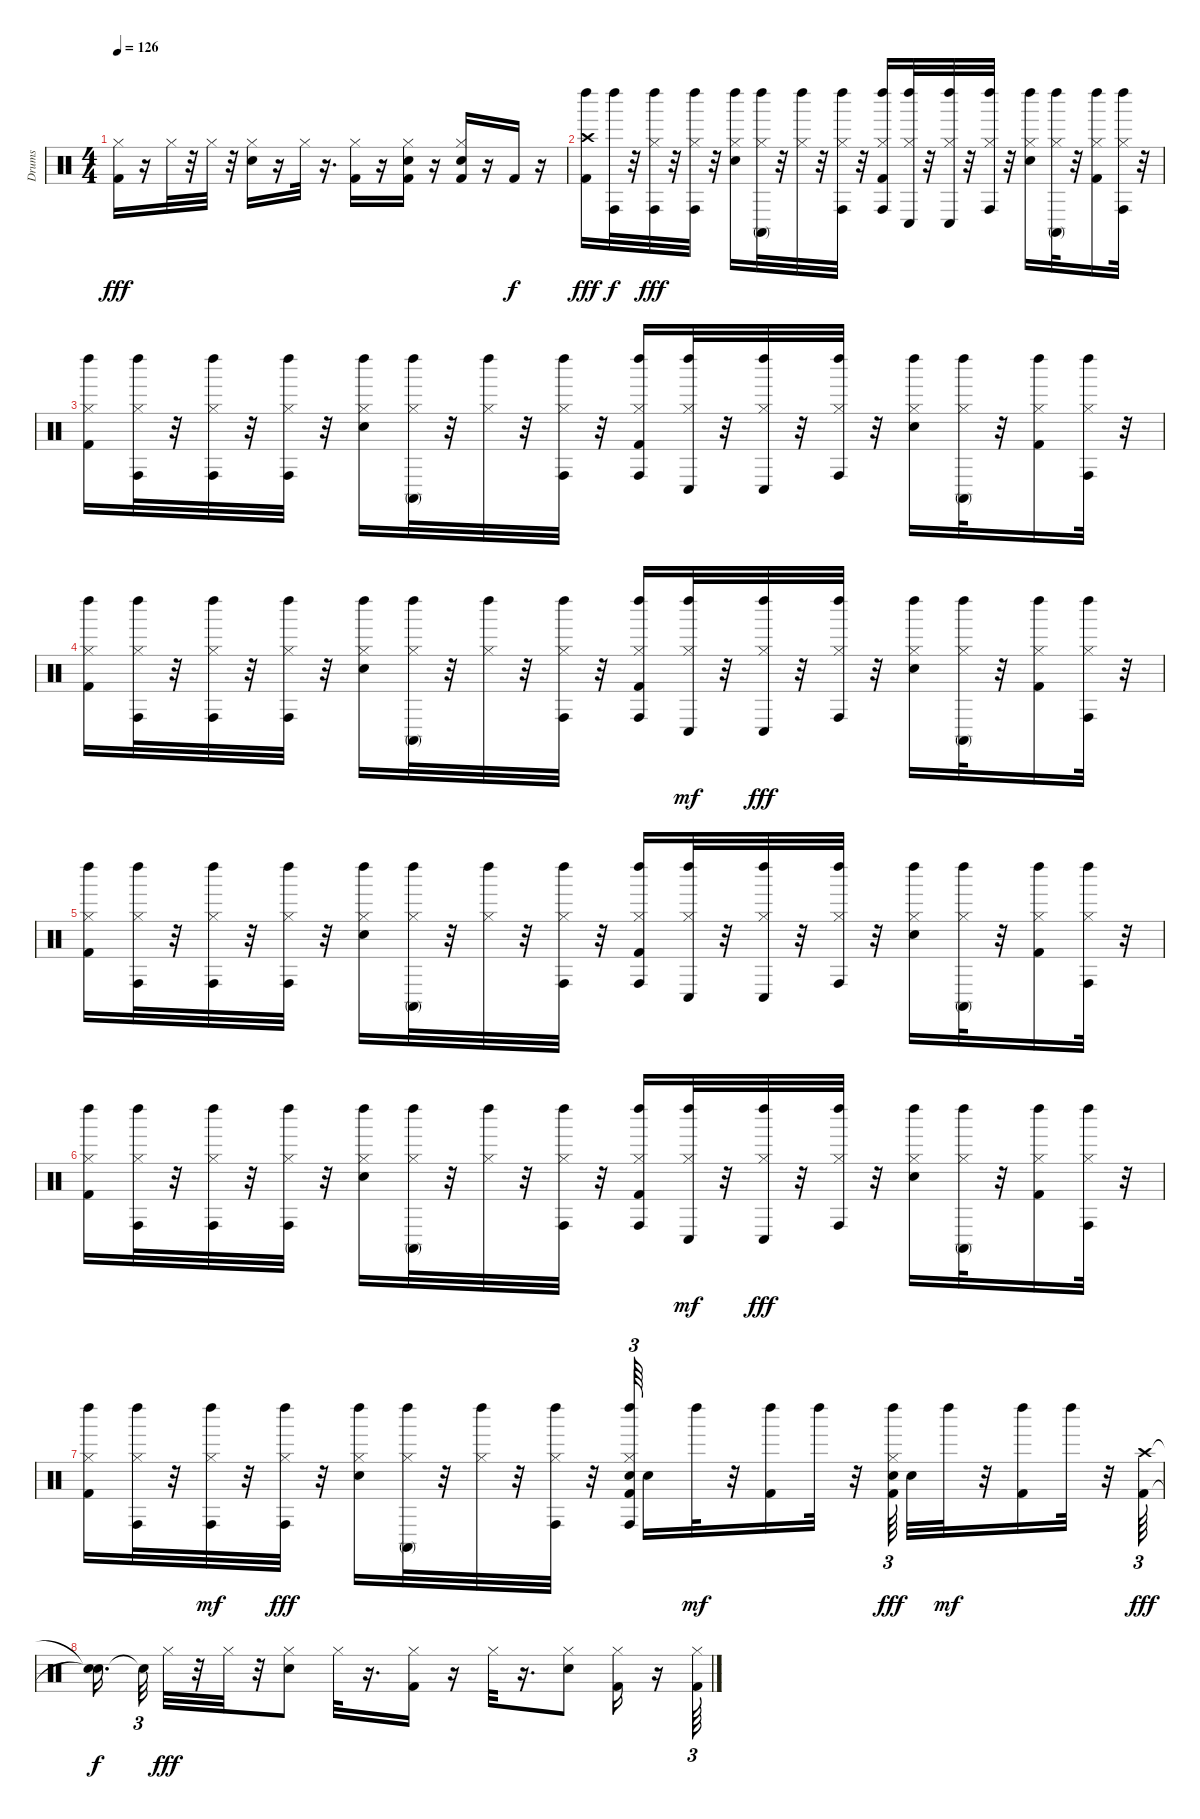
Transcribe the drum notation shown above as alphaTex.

\track ("Drums" "Drums") {instrument percussion}
\staff {score}
\articulation defaults
\ts (4 4)
\tempo 126
\clef neutral
\ks c
("Kick (hit) 2" "Hi-Hat (closed)").16{dy fff} r.16 "Hi-Hat (closed)".32 r.32 "Hi-Hat (closed)".32 r.32 ("Snare (hit) 2" "Hi-Hat (closed)").16 r.16 "Hi-Hat (closed)".32 r.16{d} ("Hi-Hat (closed)" "Kick (hit) 2").16 r.16 ("Hi-Hat (closed)" "Kick (hit) 2" "Snare (hit) 2").16 r.16 ("Hi-Hat (closed)" "Snare (hit) 2" "Kick (hit) 2").16 r.16 "Kick (hit) 2".16{dy f} r.16 |
("Crash high (hit)" "Kick (hit) 2" "Left Maraca (hit)").16{dy fff} ("Conga high (hit)" "Left Maraca (hit)").32{dy f} r.32 ("Conga high (hit)" "Left Maraca (hit)" "Hi-Hat (closed)").32{dy fff} r.32 ("Left Maraca (hit)" "Conga high (hit)" "Hi-Hat (closed)").32 r.32 ("Hi-Hat (closed)" "Snare (hit) 2" "Left Maraca (hit)").16 ("Hi-Hat (closed)" "Conga high (mute)" "Left Maraca (hit)").32 r.32 ("Hi-Hat (closed)" "Left Maraca (hit)").32 r.32 ("Left Maraca (hit)" "Conga high (hit)" "Hi-Hat (closed)").32 r.32 ("Conga high (hit)" "Hi-Hat (closed)" "Kick (hit) 2" "Left Maraca (hit)").16 ("Left Maraca (hit)" "Conga low (hit)" "Hi-Hat (closed)").32 r.32 ("Hi-Hat (closed)" "Conga low (hit)" "Left Maraca (hit)").32 r.32 ("Hi-Hat (closed)" "Left Maraca (hit)" "Conga high (hit)").32 r.32 ("Left Maraca (hit)" "Hi-Hat (closed)" "Snare (hit) 2").16 ("Hi-Hat (closed)" "Left Maraca (hit)" "Conga high (mute)").32 r.32 ("Hi-Hat (closed)" "Kick (hit) 2" "Left Maraca (hit)").16 ("Conga high (hit)" "Left Maraca (hit)" "Hi-Hat (closed)").32 r.32 |
("Hi-Hat (closed)" "Kick (hit) 2" "Left Maraca (hit)").16 ("Hi-Hat (closed)" "Conga high (hit)" "Left Maraca (hit)").32 r.32 ("Conga high (hit)" "Hi-Hat (closed)" "Left Maraca (hit)").32 r.32 ("Hi-Hat (closed)" "Left Maraca (hit)" "Conga high (hit)").32 r.32 ("Snare (hit) 2" "Left Maraca (hit)" "Hi-Hat (closed)").16 ("Hi-Hat (closed)" "Conga high (mute)" "Left Maraca (hit)").32 r.32 ("Left Maraca (hit)" "Hi-Hat (closed)").32 r.32 ("Conga high (hit)" "Hi-Hat (closed)" "Left Maraca (hit)").32 r.32 ("Conga high (hit)" "Hi-Hat (closed)" "Kick (hit) 2" "Left Maraca (hit)").16 ("Conga low (hit)" "Hi-Hat (closed)" "Left Maraca (hit)").32 r.32 ("Conga low (hit)" "Hi-Hat (closed)" "Left Maraca (hit)").32 r.32 ("Left Maraca (hit)" "Hi-Hat (closed)" "Conga high (hit)").32 r.32 ("Hi-Hat (closed)" "Left Maraca (hit)" "Snare (hit) 2").16 ("Left Maraca (hit)" "Conga high (mute)" "Hi-Hat (closed)").32 r.32 ("Left Maraca (hit)" "Hi-Hat (closed)" "Kick (hit) 2").16 ("Hi-Hat (closed)" "Conga high (hit)" "Left Maraca (hit)").32 r.32 |
("Left Maraca (hit)" "Hi-Hat (closed)" "Kick (hit) 2").16 ("Conga high (hit)" "Left Maraca (hit)" "Hi-Hat (closed)").32 r.32 ("Left Maraca (hit)" "Hi-Hat (closed)" "Conga high (hit)").32 r.32 ("Conga high (hit)" "Hi-Hat (closed)" "Left Maraca (hit)").32 r.32 ("Snare (hit) 2" "Left Maraca (hit)" "Hi-Hat (closed)").16 ("Hi-Hat (closed)" "Conga high (mute)" "Left Maraca (hit)").32 r.32 ("Left Maraca (hit)" "Hi-Hat (closed)").32 r.32 ("Left Maraca (hit)" "Conga high (hit)" "Hi-Hat (closed)").32 r.32 ("Kick (hit) 2" "Hi-Hat (closed)" "Conga high (hit)" "Left Maraca (hit)").16 ("Left Maraca (hit)" "Hi-Hat (closed)" "Conga low (hit)").32{dy mf} r.32 ("Left Maraca (hit)" "Hi-Hat (closed)" "Conga low (hit)").32{dy fff} r.32 ("Left Maraca (hit)" "Conga high (hit)" "Hi-Hat (closed)").32 r.32 ("Left Maraca (hit)" "Hi-Hat (closed)" "Snare (hit) 2").16 ("Hi-Hat (closed)" "Left Maraca (hit)" "Conga high (mute)").32 r.32 ("Kick (hit) 2" "Left Maraca (hit)" "Hi-Hat (closed)").16 ("Left Maraca (hit)" "Hi-Hat (closed)" "Conga high (hit)").32 r.32 |
("Hi-Hat (closed)" "Left Maraca (hit)" "Kick (hit) 2").16 ("Conga high (hit)" "Left Maraca (hit)" "Hi-Hat (closed)").32 r.32 ("Left Maraca (hit)" "Conga high (hit)" "Hi-Hat (closed)").32 r.32 ("Hi-Hat (closed)" "Left Maraca (hit)" "Conga high (hit)").32 r.32 ("Hi-Hat (closed)" "Left Maraca (hit)" "Snare (hit) 2").16 ("Hi-Hat (closed)" "Left Maraca (hit)" "Conga high (mute)").32 r.32 ("Left Maraca (hit)" "Hi-Hat (closed)").32 r.32 ("Left Maraca (hit)" "Hi-Hat (closed)" "Conga high (hit)").32 r.32 ("Kick (hit) 2" "Conga high (hit)" "Left Maraca (hit)" "Hi-Hat (closed)").16 ("Left Maraca (hit)" "Conga low (hit)" "Hi-Hat (closed)").32 r.32 ("Conga low (hit)" "Left Maraca (hit)" "Hi-Hat (closed)").32 r.32 ("Left Maraca (hit)" "Hi-Hat (closed)" "Conga high (hit)").32 r.32 ("Snare (hit) 2" "Left Maraca (hit)" "Hi-Hat (closed)").16 ("Conga high (mute)" "Left Maraca (hit)" "Hi-Hat (closed)").32 r.32 ("Left Maraca (hit)" "Kick (hit) 2" "Hi-Hat (closed)").16 ("Conga high (hit)" "Hi-Hat (closed)" "Left Maraca (hit)").32 r.32 |
("Kick (hit) 2" "Hi-Hat (closed)" "Left Maraca (hit)").16 ("Hi-Hat (closed)" "Left Maraca (hit)" "Conga high (hit)").32 r.32 ("Left Maraca (hit)" "Conga high (hit)" "Hi-Hat (closed)").32 r.32 ("Left Maraca (hit)" "Hi-Hat (closed)" "Conga high (hit)").32 r.32 ("Hi-Hat (closed)" "Snare (hit) 2" "Left Maraca (hit)").16 ("Left Maraca (hit)" "Hi-Hat (closed)" "Conga high (mute)").32 r.32 ("Hi-Hat (closed)" "Left Maraca (hit)").32 r.32 ("Conga high (hit)" "Hi-Hat (closed)" "Left Maraca (hit)").32 r.32 ("Left Maraca (hit)" "Conga high (hit)" "Kick (hit) 2" "Hi-Hat (closed)").16 ("Left Maraca (hit)" "Hi-Hat (closed)" "Conga low (hit)").32{dy mf} r.32 ("Conga low (hit)" "Left Maraca (hit)" "Hi-Hat (closed)").32{dy fff} r.32 ("Hi-Hat (closed)" "Left Maraca (hit)" "Conga high (hit)").32 r.32 ("Left Maraca (hit)" "Hi-Hat (closed)" "Snare (hit) 2").16 ("Hi-Hat (closed)" "Left Maraca (hit)" "Conga high (mute)").32 r.32 ("Kick (hit) 2" "Hi-Hat (closed)" "Left Maraca (hit)").16 ("Conga high (hit)" "Hi-Hat (closed)" "Left Maraca (hit)").32 r.32 |
("Kick (hit) 2" "Left Maraca (hit)" "Hi-Hat (closed)").16 ("Left Maraca (hit)" "Conga high (hit)" "Hi-Hat (closed)").32 r.32 ("Hi-Hat (closed)" "Left Maraca (hit)" "Conga high (hit)").32{dy mf} r.32 ("Left Maraca (hit)" "Hi-Hat (closed)" "Conga high (hit)").32{dy fff} r.32 ("Left Maraca (hit)" "Hi-Hat (closed)" "Snare (hit) 2").16 ("Conga high (mute)" "Left Maraca (hit)" "Hi-Hat (closed)").32 r.32 ("Left Maraca (hit)" "Hi-Hat (closed)").32 r.32 ("Conga high (hit)" "Left Maraca (hit)" "Hi-Hat (closed)").32 r.32 ("Kick (hit) 2" "Conga high (hit)" "Snare (hit) 2" "Left Maraca (hit)" "Hi-Hat (closed)").64{tu (3 2)} "Snare (hit) 2".16 "Left Maraca (hit)".32{dy mf} r.32 ("Kick (hit) 2" "Left Maraca (hit)").16 "Left Maraca (hit)".32 r.32 ("Snare (hit) 2" "Left Maraca (hit)" "Hi-Hat (closed)" "Kick (hit) 2").64{tu (3 2) dy fff} "Snare (hit) 2".32 "Left Maraca (hit)".32{dy mf} r.32 ("Kick (hit) 2" "Left Maraca (hit)").16 "Left Maraca (hit)".32 r.32 ("Kick (hit) 2" "Crash high (hit)").64{tu (3 2) dy fff} |
("Snare (hit)"{t} "Snare (hit)"{t}).16{d dy f} "Snare (hit)"{t}.32{tu (3 2)} "Hi-Hat (closed)".32{dy fff} r.32 "Hi-Hat (closed)".32 r.32 ("Snare (hit) 2" "Hi-Hat (closed)").8 "Hi-Hat (closed)".32 r.16{d} ("Hi-Hat (closed)" "Kick (hit) 2").16 r.16 "Hi-Hat (closed)".32 r.16{d} ("Snare (hit) 2" "Hi-Hat (closed)").8 ("Hi-Hat (closed)" "Kick (hit) 2").16 r.16 ("Hi-Hat (closed)" "Kick (hit) 2").64{tu (3 2)}
